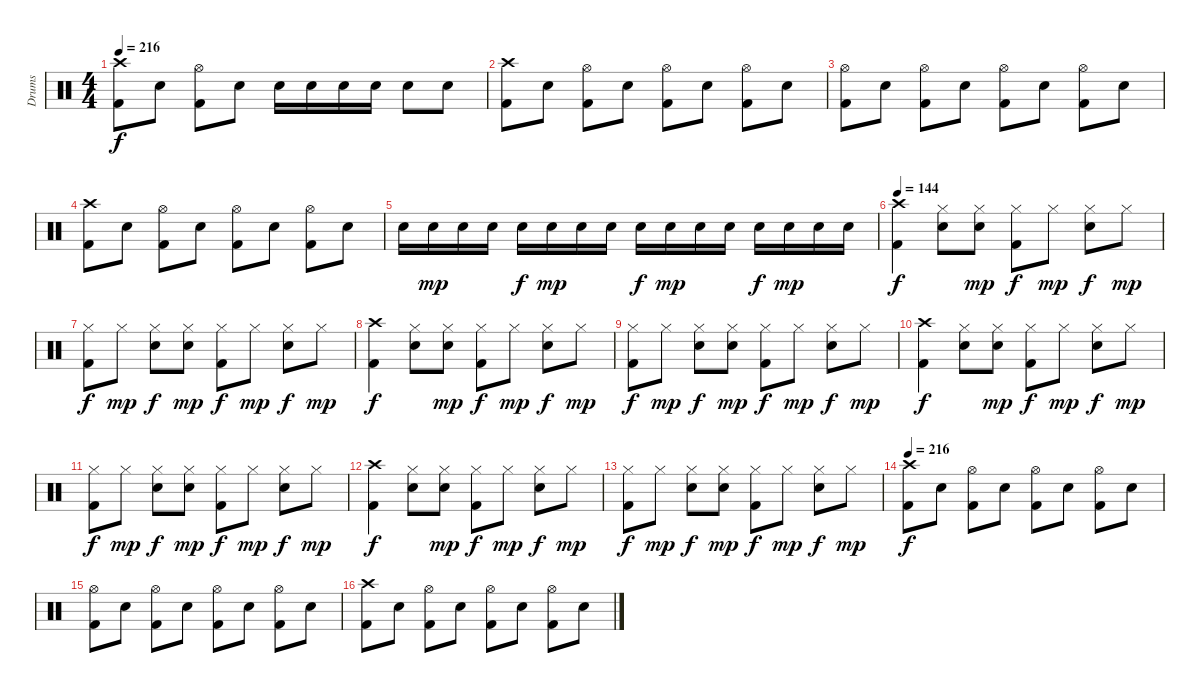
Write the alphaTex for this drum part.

\track ("Drums" "Drums") {instrument percussion}
\staff {score}
\articulation defaults
\ts (4 4)
\tempo 216
\clef neutral
\ks c
("Crash high (hit)" "Kick (hit) 2").8{dy f} "Electric Snare (hit)".8 ("Hi-Hat (open)" "Kick (hit) 2").8 "Electric Snare (hit)".8 "Electric Snare (hit)".16 "Electric Snare (hit)".16 "Electric Snare (hit)".16 "Electric Snare (hit)".16 "Electric Snare (hit)".8 "Electric Snare (hit)".8 |
("Crash high (hit)" "Kick (hit) 2").8 "Electric Snare (hit)".8 ("Hi-Hat (open)" "Kick (hit) 2").8 "Electric Snare (hit)".8 ("Hi-Hat (open)" "Kick (hit) 2").8 "Electric Snare (hit)".8 ("Hi-Hat (open)" "Kick (hit) 2").8 "Electric Snare (hit)".8 |
("Hi-Hat (open)" "Kick (hit) 2").8 "Electric Snare (hit)".8 ("Hi-Hat (open)" "Kick (hit) 2").8 "Electric Snare (hit)".8 ("Hi-Hat (open)" "Kick (hit) 2").8 "Electric Snare (hit)".8 ("Hi-Hat (open)" "Kick (hit) 2").8 "Electric Snare (hit)".8 |
("Crash high (hit)" "Kick (hit) 2").8 "Electric Snare (hit)".8 ("Hi-Hat (open)" "Kick (hit) 2").8 "Electric Snare (hit)".8 ("Hi-Hat (open)" "Kick (hit) 2").8 "Electric Snare (hit)".8 ("Hi-Hat (open)" "Kick (hit) 2").8 "Electric Snare (hit)".8 |
"Electric Snare (hit)".16 "Electric Snare (hit)".16{dy mp} "Electric Snare (hit)".16 "Electric Snare (hit)".16 "Electric Snare (hit)".16{dy f} "Electric Snare (hit)".16{dy mp} "Electric Snare (hit)".16 "Electric Snare (hit)".16 "Electric Snare (hit)".16{dy f} "Electric Snare (hit)".16{dy mp} "Electric Snare (hit)".16 "Electric Snare (hit)".16 "Electric Snare (hit)".16{dy f} "Electric Snare (hit)".16{dy mp} "Electric Snare (hit)".16 "Electric Snare (hit)".16 |
\tempo 144
("Crash high (hit)" "Kick (hit) 2").4{dy f} ("Hi-Hat (closed)" "Electric Snare (hit)").8 ("Hi-Hat (closed)" "Electric Snare (hit)").8{dy mp} ("Hi-Hat (closed)" "Kick (hit) 2").8{dy f} "Hi-Hat (closed)".8{dy mp} ("Hi-Hat (closed)" "Electric Snare (hit)").8{dy f} "Hi-Hat (closed)".8{dy mp} |
("Hi-Hat (closed)" "Kick (hit) 2").8{dy f} "Hi-Hat (closed)".8{dy mp} ("Hi-Hat (closed)" "Electric Snare (hit)").8{dy f} ("Hi-Hat (closed)" "Electric Snare (hit)").8{dy mp} ("Hi-Hat (closed)" "Kick (hit) 2").8{dy f} "Hi-Hat (closed)".8{dy mp} ("Hi-Hat (closed)" "Electric Snare (hit)").8{dy f} "Hi-Hat (closed)".8{dy mp} |
("Crash high (hit)" "Kick (hit) 2").4{dy f} ("Hi-Hat (closed)" "Electric Snare (hit)").8 ("Hi-Hat (closed)" "Electric Snare (hit)").8{dy mp} ("Hi-Hat (closed)" "Kick (hit) 2").8{dy f} "Hi-Hat (closed)".8{dy mp} ("Hi-Hat (closed)" "Electric Snare (hit)").8{dy f} "Hi-Hat (closed)".8{dy mp} |
("Hi-Hat (closed)" "Kick (hit) 2").8{dy f} "Hi-Hat (closed)".8{dy mp} ("Hi-Hat (closed)" "Electric Snare (hit)").8{dy f} ("Hi-Hat (closed)" "Electric Snare (hit)").8{dy mp} ("Hi-Hat (closed)" "Kick (hit) 2").8{dy f} "Hi-Hat (closed)".8{dy mp} ("Hi-Hat (closed)" "Electric Snare (hit)").8{dy f} "Hi-Hat (closed)".8{dy mp} |
("Crash high (hit)" "Kick (hit) 2").4{dy f} ("Hi-Hat (closed)" "Electric Snare (hit)").8 ("Hi-Hat (closed)" "Electric Snare (hit)").8{dy mp} ("Hi-Hat (closed)" "Kick (hit) 2").8{dy f} "Hi-Hat (closed)".8{dy mp} ("Hi-Hat (closed)" "Electric Snare (hit)").8{dy f} "Hi-Hat (closed)".8{dy mp} |
("Hi-Hat (closed)" "Kick (hit) 2").8{dy f} "Hi-Hat (closed)".8{dy mp} ("Hi-Hat (closed)" "Electric Snare (hit)").8{dy f} ("Hi-Hat (closed)" "Electric Snare (hit)").8{dy mp} ("Hi-Hat (closed)" "Kick (hit) 2").8{dy f} "Hi-Hat (closed)".8{dy mp} ("Hi-Hat (closed)" "Electric Snare (hit)").8{dy f} "Hi-Hat (closed)".8{dy mp} |
("Crash high (hit)" "Kick (hit) 2").4{dy f} ("Hi-Hat (closed)" "Electric Snare (hit)").8 ("Hi-Hat (closed)" "Electric Snare (hit)").8{dy mp} ("Hi-Hat (closed)" "Kick (hit) 2").8{dy f} "Hi-Hat (closed)".8{dy mp} ("Hi-Hat (closed)" "Electric Snare (hit)").8{dy f} "Hi-Hat (closed)".8{dy mp} |
("Hi-Hat (closed)" "Kick (hit) 2").8{dy f} "Hi-Hat (closed)".8{dy mp} ("Hi-Hat (closed)" "Electric Snare (hit)").8{dy f} ("Hi-Hat (closed)" "Electric Snare (hit)").8{dy mp} ("Hi-Hat (closed)" "Kick (hit) 2").8{dy f} "Hi-Hat (closed)".8{dy mp} ("Hi-Hat (closed)" "Electric Snare (hit)").8{dy f} "Hi-Hat (closed)".8{dy mp} |
\tempo 216
("Crash high (hit)" "Kick (hit) 2").8{dy f} "Electric Snare (hit)".8 ("Hi-Hat (open)" "Kick (hit) 2").8 "Electric Snare (hit)".8 ("Hi-Hat (open)" "Kick (hit) 2").8 "Electric Snare (hit)".8 ("Hi-Hat (open)" "Kick (hit) 2").8 "Electric Snare (hit)".8 |
("Hi-Hat (open)" "Kick (hit) 2").8 "Electric Snare (hit)".8 ("Hi-Hat (open)" "Kick (hit) 2").8 "Electric Snare (hit)".8 ("Hi-Hat (open)" "Kick (hit) 2").8 "Electric Snare (hit)".8 ("Hi-Hat (open)" "Kick (hit) 2").8 "Electric Snare (hit)".8 |
("Crash high (hit)" "Kick (hit) 2").8 "Electric Snare (hit)".8 ("Hi-Hat (open)" "Kick (hit) 2").8 "Electric Snare (hit)".8 ("Hi-Hat (open)" "Kick (hit) 2").8 "Electric Snare (hit)".8 ("Hi-Hat (open)" "Kick (hit) 2").8 "Electric Snare (hit)".8
